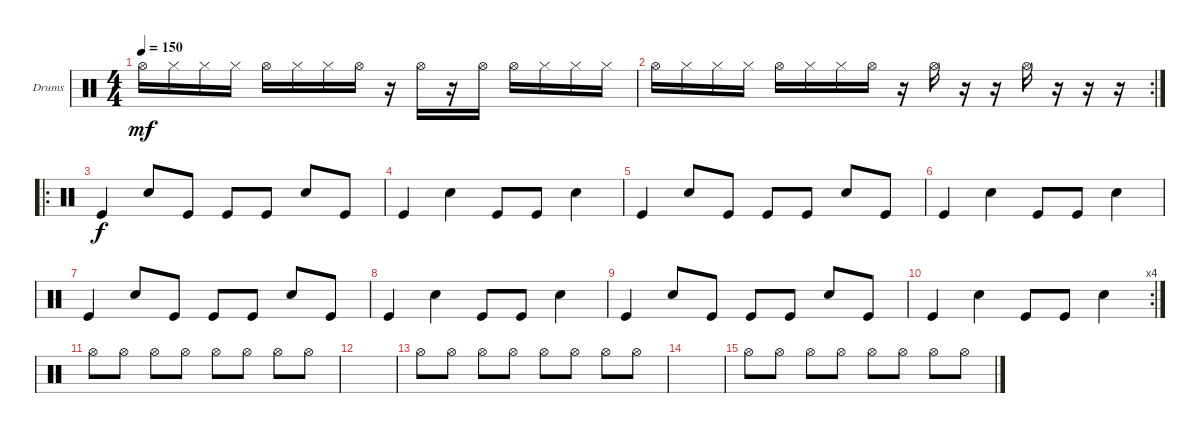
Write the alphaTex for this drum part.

\defaultSystemsLayout 4
\bracketExtendMode groupsimilarinstruments
\firstSystemTrackNameOrientation horizontal
\otherSystemsTrackNameOrientation horizontal
\track ("Drumkit" "Drums") {instrument percussion}
\staff {score}
\articulation defaults
\ts (4 4)
\tempo 150
\clef neutral
\scale
0.321839
\ks c "Hi-Hat (open)".16{dy mf} "Hi-Hat (closed)".16 "Hi-Hat (closed)".16 "Hi-Hat (closed)".16 "Hi-Hat (open)".16 "Hi-Hat (closed)".16 "Hi-Hat (closed)".16 "Hi-Hat (open)".16
r.16 "Hi-Hat (open)".16 r.16 "Hi-Hat (open)".16 "Hi-Hat (open)".16 "Hi-Hat (closed)".16 "Hi-Hat (closed)".16 "Hi-Hat (closed)".16 |
\rc 2
\scale
0.356322 "Hi-Hat (open)".16 "Hi-Hat (closed)".16 "Hi-Hat (closed)".16 "Hi-Hat (closed)".16 "Hi-Hat (open)".16 "Hi-Hat (closed)".16 "Hi-Hat (closed)".16 "Hi-Hat (open)".16 r.16 "Hi-Hat (open)".16 r.16 r.16 "Hi-Hat (open)".16 r.16 r.16 r.16 |
\ro
\scale
0.377778 "Kick (hit)".4{dy f} "Snare (hit) 2".8 "Kick (hit)".8 "Kick (hit)".8 "Kick (hit)".8 "Snare (hit) 2".8 "Kick (hit)".8 |
\scale
0.311111 "Kick (hit)".4 "Snare (hit) 2".4 "Kick (hit)".8 "Kick (hit)".8 "Snare (hit) 2".4 |
\scale
0.311111 "Kick (hit)".4 "Snare (hit) 2".8 "Kick (hit)".8 "Kick (hit)".8 "Kick (hit)".8 "Snare (hit) 2".8 "Kick (hit)".8 |
\scale
0.333333 "Kick (hit)".4 "Snare (hit) 2".4 "Kick (hit)".8 "Kick (hit)".8 "Snare (hit) 2".4 |
\scale
0.333333 "Kick (hit)".4 "Snare (hit) 2".8 "Kick (hit)".8 "Kick (hit)".8 "Kick (hit)".8 "Snare (hit) 2".8 "Kick (hit)".8 |
\scale
0.333333 "Kick (hit)".4 "Snare (hit) 2".4 "Kick (hit)".8 "Kick (hit)".8 "Snare (hit) 2".4 |
\scale
0.321839 "Kick (hit)".4 "Snare (hit) 2".8 "Kick (hit)".8 "Kick (hit)".8 "Kick (hit)".8 "Snare (hit) 2".8 "Kick (hit)".8 |
\rc 4
\scale
0.356322 "Kick (hit)".4 "Snare (hit) 2".4 "Kick (hit)".8 "Kick (hit)".8 "Snare (hit) 2".4 |
\scale
0.321839 "Hi-Hat (open)".8 "Hi-Hat (open)".8 "Hi-Hat (open)".8 "Hi-Hat (open)".8 "Hi-Hat (open)".8 "Hi-Hat (open)".8 "Hi-Hat (open)".8 "Hi-Hat (open)".8 |
\scale
0.333333 |
\scale
0.333333 "Hi-Hat (open)".8 "Hi-Hat (open)".8 "Hi-Hat (open)".8 "Hi-Hat (open)".8 "Hi-Hat (open)".8 "Hi-Hat (open)".8 "Hi-Hat (open)".8 "Hi-Hat (open)".8 |
\scale
0.333333 |
\scale
0.311111 "Hi-Hat (open)".8 "Hi-Hat (open)".8 "Hi-Hat (open)".8 "Hi-Hat (open)".8 "Hi-Hat (open)".8 "Hi-Hat (open)".8 "Hi-Hat (open)".8 "Hi-Hat (open)".8 |
\scale
0.311111
